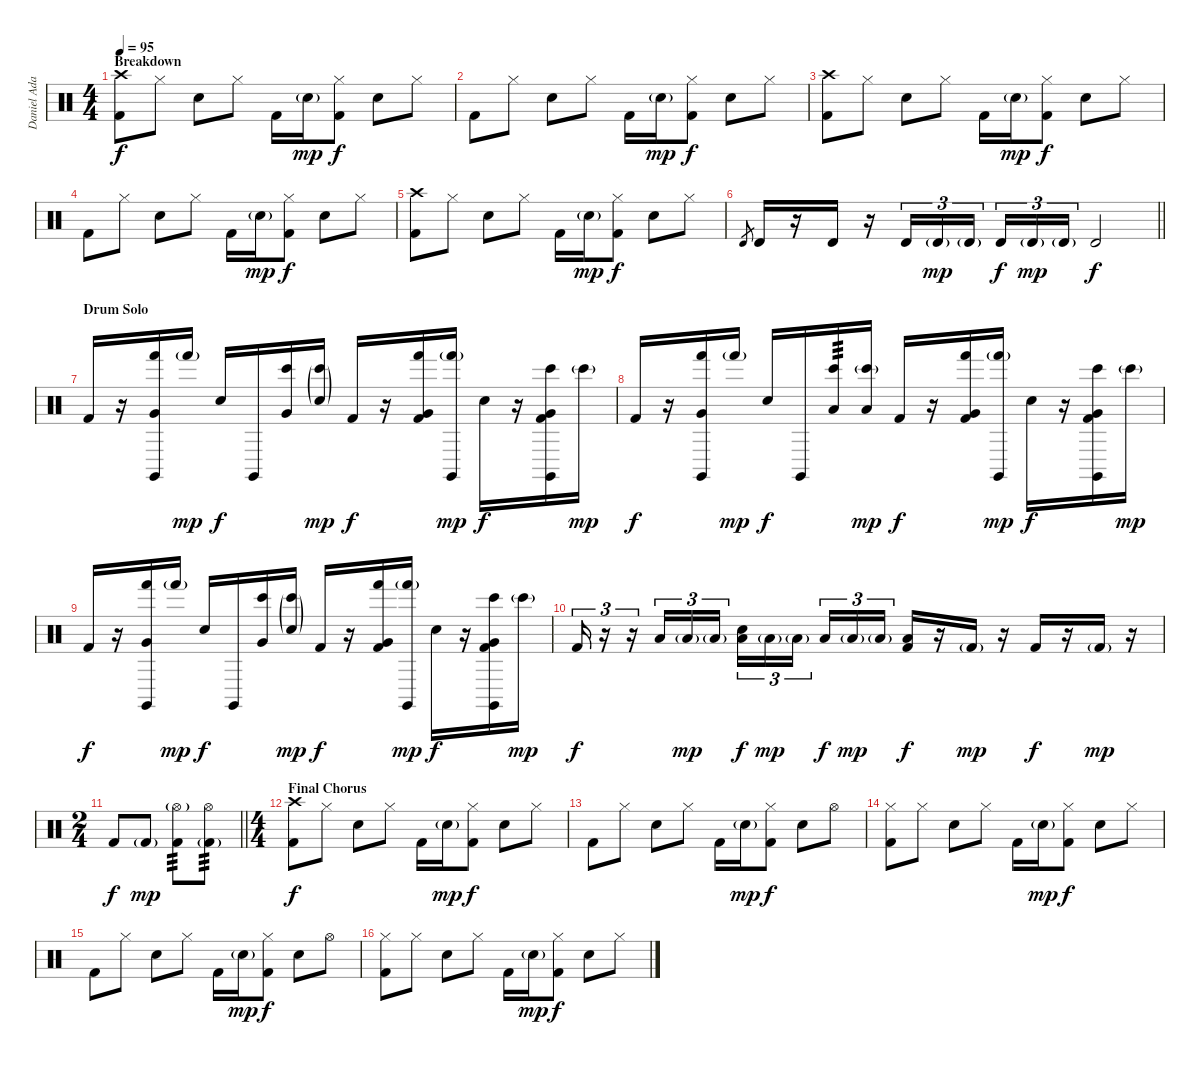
\track ("Daniel Adair" "Daniel Ada") {instrument percussion}
\staff {score}
\articulation defaults
\ts (4 4)
\section ("" "Breakdown")
\tempo 95
\clef neutral
\ks c
("Crash high (hit)" "Kick (hit) 2").8{dy f} "Hi-Hat (closed)".8 "Electric Snare (hit)".8 "Hi-Hat (closed)".8 "Kick (hit) 2".16 "Electric Snare (hit)"{g}.16{dy mp} ("Hi-Hat (closed)" "Kick (hit) 2").8{dy f} "Electric Snare (hit)".8 "Hi-Hat (closed)".8 |
"Kick (hit) 2".8 "Hi-Hat (closed)".8 "Electric Snare (hit)".8 "Hi-Hat (closed)".8 "Kick (hit) 2".16 "Electric Snare (hit)"{g}.16{dy mp} ("Hi-Hat (closed)" "Kick (hit) 2").8{dy f} "Electric Snare (hit)".8 "Hi-Hat (closed)".8 |
("Crash high (hit)" "Kick (hit) 2").8 "Hi-Hat (closed)".8 "Electric Snare (hit)".8 "Hi-Hat (closed)".8 "Kick (hit) 2".16 "Electric Snare (hit)"{g}.16{dy mp} ("Hi-Hat (closed)" "Kick (hit) 2").8{dy f} "Electric Snare (hit)".8 "Hi-Hat (closed)".8 |
"Kick (hit) 2".8 "Hi-Hat (closed)".8 "Electric Snare (hit)".8 "Hi-Hat (closed)".8 "Kick (hit) 2".16 "Electric Snare (hit)"{g}.16{dy mp} ("Hi-Hat (closed)" "Kick (hit) 2").8{dy f} "Electric Snare (hit)".8 "Hi-Hat (closed)".8 |
("Crash high (hit)" "Kick (hit) 2").8 "Hi-Hat (closed)".8 "Electric Snare (hit)".8 "Hi-Hat (closed)".8 "Kick (hit) 2".16 "Electric Snare (hit)"{g}.16{dy mp} ("Hi-Hat (closed)" "Kick (hit) 2").8{dy f} "Electric Snare (hit)".8 "Hi-Hat (closed)".8 |
\barLineRight lightlight "Timbale high (hit)".8{gr} "Timbale high (hit)".16
r.16 "Timbale high (hit)".16 r.16 "Timbale high (hit)".16{tu (3 2)} "Timbale high (hit)"{g}.16{tu (3 2) dy mp} "Timbale high (hit)"{g}.16{tu (3 2) beam splitsecondary} "Timbale high (hit)".16{tu (3 2) dy f} "Timbale high (hit)"{g}.16{tu (3 2) dy mp} "Timbale high (hit)"{g}.16{tu (3 2)} "Timbale high (hit)".2{dy f} |
\section ("" "Drum Solo")
"Kick (hit) 2".16 r.16 ("Claves (hit)" "Hand (hit)" "Very Low Tom (hit)").16 "Hand (hit)"{g}.16{dy mp} "Electric Snare (hit)".16{dy f} "Claves (hit)".16 ("Bongo High (hit)" "Very Low Tom (hit)").16 ("Bongo High (hit)"{g} "Electric Snare (hit)"{g}).16{dy mp} "Kick (hit) 2".16{dy f} r.16 ("Hand (hit)" "Very Low Tom (hit)" "Kick (hit) 2").16 ("Claves (hit)" "Hand (hit)"{g}).16{dy mp} "Electric Snare (hit)".16{dy f} r.16 ("Claves (hit)" "Bongo High (hit)" "Very Low Tom (hit)" "Kick (hit) 2").16 "Bongo High (hit)"{g}.16{dy mp} |
"Kick (hit) 2".16{dy f} r.16 ("Claves (hit)" "Hand (hit)" "Very Low Tom (hit)").16 "Hand (hit)"{g}.16{dy mp} "Electric Snare (hit)".16{dy f} "Claves (hit)".16 ("Bongo High (hit)" "Low Tom (hit)").16{tp 3} ("Bongo High (hit)"{g} "Low Tom (hit)").16{dy mp} "Kick (hit) 2".16{dy f} r.16 ("Hand (hit)" "Very Low Tom (hit)" "Kick (hit) 2").16 ("Claves (hit)" "Hand (hit)"{g}).16{dy mp} "Electric Snare (hit)".16{dy f} r.16 ("Claves (hit)" "Bongo High (hit)" "Very Low Tom (hit)" "Kick (hit) 2").16 "Bongo High (hit)"{g}.16{dy mp} |
"Kick (hit) 2".16{dy f} r.16 ("Claves (hit)" "Hand (hit)" "Very Low Tom (hit)").16 "Hand (hit)"{g}.16{dy mp} "Electric Snare (hit)".16{dy f} "Claves (hit)".16 ("Bongo High (hit)" "Very Low Tom (hit)").16 ("Bongo High (hit)"{g} "Electric Snare (hit)"{g}).16{dy mp} "Kick (hit) 2".16{dy f} r.16 ("Hand (hit)" "Very Low Tom (hit)" "Kick (hit) 2").16 ("Claves (hit)" "Hand (hit)"{g}).16{dy mp} "Electric Snare (hit)".16{dy f} r.16 ("Claves (hit)" "Bongo High (hit)" "Very Low Tom (hit)" "Kick (hit) 2").16 "Bongo High (hit)"{g}.16{dy mp} |
"Kick (hit) 2".16{tu (3 2) dy f} r.16{tu (3 2)} r.16{tu (3 2)} "Low Tom (hit)".16{tu (3 2)} "Low Tom (hit)"{g}.16{tu (3 2) dy mp} "Low Tom (hit)"{g}.16{tu (3 2)} ("Low Tom (hit)" "Electric Snare (hit)").16{tu (3 2) dy f} "Low Tom (hit)"{g}.16{tu (3 2) dy mp} "Low Tom (hit)"{g}.16{tu (3 2) beam splitsecondary} "Low Tom (hit)".16{tu (3 2) dy f} "Low Tom (hit)"{g}.16{tu (3 2) dy mp} "Low Tom (hit)"{g}.16{tu (3 2)} ("Low Tom (hit)" "Kick (hit) 2").16{dy f} r.16 "Kick (hit) 2"{g}.16{dy mp} r.16 "Kick (hit) 2".16{dy f} r.16 "Kick (hit) 2"{g}.16{dy mp} r.16 |
\ts (2 4)
\barLineRight lightlight "Kick (hit) 2".8{dy f} "Kick (hit) 2"{g}.8{dy mp}
("Hi-Hat (open)"{g} "Kick (hit) 2").8{tp 3} ("Hi-Hat (open)" "Kick (hit) 2"{g}).8{tp 3} |
\ts (4 4)
\section ("" "Final Chorus")
("Crash high (hit)" "Kick (hit) 2").8{dy f} "Hi-Hat (closed)".8 "Electric Snare (hit)".8 "Hi-Hat (closed)".8 "Kick (hit) 2".16 "Electric Snare (hit)"{g}.16{dy mp} ("Hi-Hat (closed)" "Kick (hit) 2").8{dy f} "Electric Snare (hit)".8 "Hi-Hat (closed)".8 |
"Kick (hit) 2".8 "Hi-Hat (closed)".8 "Electric Snare (hit)".8 "Hi-Hat (closed)".8 "Kick (hit) 2".16 "Electric Snare (hit)"{g}.16{dy mp} ("Hi-Hat (closed)" "Kick (hit) 2").8{dy f} "Electric Snare (hit)".8 "Hi-Hat (open)".8 |
("Hi-Hat (closed)" "Kick (hit) 2").8 "Hi-Hat (closed)".8 "Electric Snare (hit)".8 "Hi-Hat (closed)".8 "Kick (hit) 2".16 "Electric Snare (hit)"{g}.16{dy mp} ("Hi-Hat (closed)" "Kick (hit) 2").8{dy f} "Electric Snare (hit)".8 "Hi-Hat (closed)".8 |
"Kick (hit) 2".8 "Hi-Hat (closed)".8 "Electric Snare (hit)".8 "Hi-Hat (closed)".8 "Kick (hit) 2".16 "Electric Snare (hit)"{g}.16{dy mp} ("Hi-Hat (closed)" "Kick (hit) 2").8{dy f} "Electric Snare (hit)".8 "Hi-Hat (open)".8 |
("Hi-Hat (closed)" "Kick (hit) 2").8 "Hi-Hat (closed)".8 "Electric Snare (hit)".8 "Hi-Hat (closed)".8 "Kick (hit) 2".16 "Electric Snare (hit)"{g}.16{dy mp} ("Hi-Hat (closed)" "Kick (hit) 2").8{dy f} "Electric Snare (hit)".8 "Hi-Hat (closed)".8
